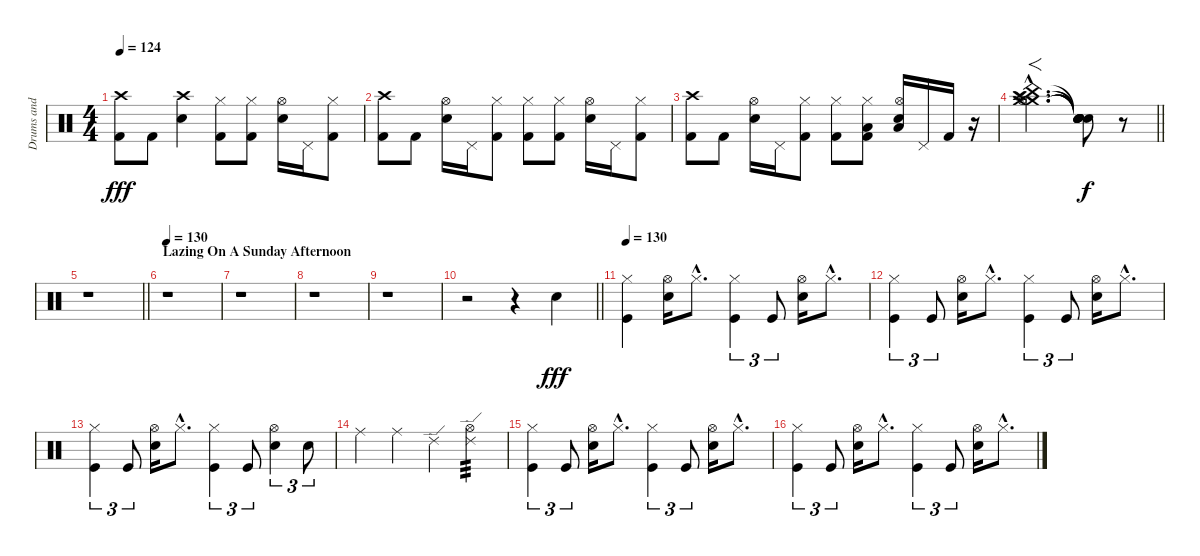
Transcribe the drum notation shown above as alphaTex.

\track ("Drums and percussion" "Drums and ") {instrument percussion}
\staff {score}
\articulation defaults
\ts (4 4)
\tempo 124
\clef neutral
\ks c
("Crash high (hit)" "Kick (hit) 2").8{dy fff} "Kick (hit) 2".8 ("Crash high (hit)" "Snare (hit) 2").4 ("Hi-Hat (closed)" "Kick (hit) 2").8 ("Hi-Hat (closed)" "Kick (hit) 2").8 ("Hi-Hat (open)" "Snare (hit) 2").16 "Pedal Hi-Hat (hit)".16 ("Hi-Hat (closed)" "Kick (hit) 2").8 |
("Crash high (hit)" "Kick (hit) 2").8 "Kick (hit) 2".8 ("Hi-Hat (open)" "Snare (hit) 2").16 "Pedal Hi-Hat (hit)".16 ("Hi-Hat (closed)" "Kick (hit) 2").8 ("Hi-Hat (closed)" "Kick (hit) 2").8 ("Hi-Hat (closed)" "Kick (hit) 2").8 ("Hi-Hat (open)" "Snare (hit) 2").16 "Pedal Hi-Hat (hit)".16 ("Hi-Hat (closed)" "Kick (hit) 2").8 |
("Crash high (hit)" "Kick (hit) 2").8 "Kick (hit) 2".8 ("Hi-Hat (open)" "Snare (hit) 2").16 "Pedal Hi-Hat (hit)".16 ("Hi-Hat (closed)" "Kick (hit) 2").8 ("Hi-Hat (closed)" "Kick (hit) 2").8 ("Hi-Hat (closed)" "Low Floor Tom (hit)" "Kick (hit) 2").8 ("Hi-Hat (open)" "Low Floor Tom (hit)" "Snare (hit) 2").16 "Pedal Hi-Hat (hit)".16 "Kick (hit) 2".16 r.16 |
\barLineRight lightlight
("Crash medium (hit)"{tr (57 64) hac} "Crash high (hit)"{tr (49 64) hac} "Crash medium (hit)"{tr (57 64) hac} "Splash (hit)"{tr (55 64) hac} "China (hit)"{tr (52 64) hac} "Hi-Hat (open)"{tr (46 64) hac}).2{f d} ("Snare (hit)"{t} "Snare (hit)"{t} "Snare (hit)"{t} "Snare (hit)"{t} "Snare (hit)"{t} "Snare (hit)"{t}).8{dy f} r.8{volume 0} |
\barLineRight lightlight
r.1 |
\section ("" "Lazing On A Sunday Afternoon")
\tempo 130
r.1{volume 8} |
r.1 |
r.1 |
r.1 |
\barLineRight lightlight
r.2 r.4 "Snare (hit) 2".4{dy fff} |
\tempo 130
("Hi-Hat (closed)" "Kick (hit)").4 ("Hi-Hat (open)" "Snare (hit) 2").16 "Hi-Hat (closed)"{hac}.8{d} ("Hi-Hat (closed)" "Kick (hit)").4{tu (3 2)} "Kick (hit)".8{tu (3 2)} ("Hi-Hat (open)" "Snare (hit) 2").16 "Hi-Hat (closed)"{hac}.8{d} |
("Hi-Hat (closed)" "Kick (hit)").4{tu (3 2)} "Kick (hit)".8{tu (3 2)} ("Hi-Hat (open)" "Snare (hit) 2").16 "Hi-Hat (closed)"{hac}.8{d} ("Hi-Hat (closed)" "Kick (hit)").4{tu (3 2)} "Kick (hit)".8{tu (3 2)} ("Hi-Hat (open)" "Snare (hit) 2").16 "Hi-Hat (closed)"{hac}.8{d} |
("Hi-Hat (closed)" "Kick (hit)").4{tu (3 2)} "Kick (hit)".8{tu (3 2)} ("Hi-Hat (open)" "Snare (hit) 2").16 "Hi-Hat (closed)"{hac}.8{d} ("Hi-Hat (closed)" "Kick (hit)").4{tu (3 2)} "Kick (hit)".8{tu (3 2)} ("Hi-Hat (open)" "Snare (hit) 2").4{tu (3 2)} "Electric Snare (hit)".8{tu (3 2)} |
"Ride (middle)".4 "Ride (middle)".4 "Ride (edge) 2".4 ("Hi-Hat (open)" "Ride (edge) 2").4{tp 3} |
("Hi-Hat (closed)" "Kick (hit)").4{tu (3 2)} "Kick (hit)".8{tu (3 2)} ("Hi-Hat (open)" "Snare (hit) 2").16 "Hi-Hat (closed)"{hac}.8{d} ("Hi-Hat (closed)" "Kick (hit)").4{tu (3 2)} "Kick (hit)".8{tu (3 2)} ("Hi-Hat (open)" "Snare (hit) 2").16 "Hi-Hat (closed)"{hac}.8{d} |
("Hi-Hat (closed)" "Kick (hit)").4{tu (3 2)} "Kick (hit)".8{tu (3 2)} ("Hi-Hat (open)" "Snare (hit) 2").16 "Hi-Hat (closed)"{hac}.8{d} ("Hi-Hat (closed)" "Kick (hit)").4{tu (3 2)} "Kick (hit)".8{tu (3 2)} ("Hi-Hat (open)" "Snare (hit) 2").16 "Hi-Hat (closed)"{hac}.8{d}
